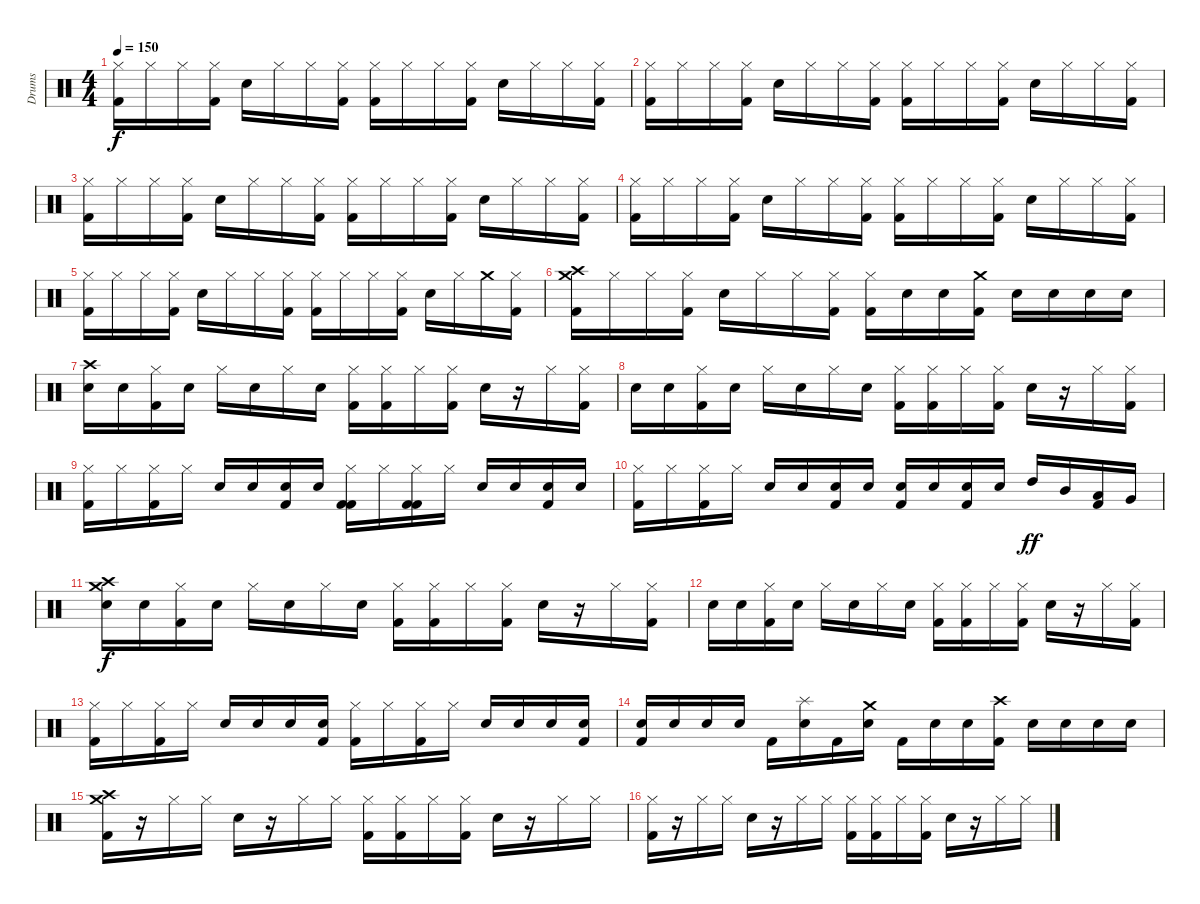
\track ("Drums" "Drums") {instrument percussion}
\staff {score}
\articulation defaults
\ts (4 4)
\tempo 150
\clef neutral
\ks c
("Hi-Hat (closed)" "Kick (hit) 2").16{dy f} "Hi-Hat (closed)".16 "Hi-Hat (closed)".16 ("Hi-Hat (closed)" "Kick (hit) 2").16 "Snare (hit) 2".16 "Hi-Hat (closed)".16 "Hi-Hat (closed)".16 ("Hi-Hat (closed)" "Kick (hit) 2").16 ("Hi-Hat (closed)" "Kick (hit) 2").16 "Hi-Hat (closed)".16 "Hi-Hat (closed)".16 ("Hi-Hat (closed)" "Kick (hit) 2").16 "Snare (hit) 2".16 "Hi-Hat (closed)".16 "Hi-Hat (closed)".16 ("Hi-Hat (closed)" "Kick (hit) 2").16 |
("Hi-Hat (closed)" "Kick (hit) 2").16 "Hi-Hat (closed)".16 "Hi-Hat (closed)".16 ("Hi-Hat (closed)" "Kick (hit) 2").16 "Snare (hit) 2".16 "Hi-Hat (closed)".16 "Hi-Hat (closed)".16 ("Hi-Hat (closed)" "Kick (hit) 2").16 ("Hi-Hat (closed)" "Kick (hit) 2").16 "Hi-Hat (closed)".16 "Hi-Hat (closed)".16 ("Hi-Hat (closed)" "Kick (hit) 2").16 "Snare (hit) 2".16 "Hi-Hat (closed)".16 "Hi-Hat (closed)".16 ("Hi-Hat (closed)" "Kick (hit) 2").16 |
("Hi-Hat (closed)" "Kick (hit) 2").16 "Hi-Hat (closed)".16 "Hi-Hat (closed)".16 ("Hi-Hat (closed)" "Kick (hit) 2").16 "Snare (hit) 2".16 "Hi-Hat (closed)".16 "Hi-Hat (closed)".16 ("Hi-Hat (closed)" "Kick (hit) 2").16 ("Hi-Hat (closed)" "Kick (hit) 2").16 "Hi-Hat (closed)".16 "Hi-Hat (closed)".16 ("Hi-Hat (closed)" "Kick (hit) 2").16 "Snare (hit) 2".16 "Hi-Hat (closed)".16 "Hi-Hat (closed)".16 ("Hi-Hat (closed)" "Kick (hit) 2").16 |
("Hi-Hat (closed)" "Kick (hit) 2").16 "Hi-Hat (closed)".16 "Hi-Hat (closed)".16 ("Hi-Hat (closed)" "Kick (hit) 2").16 "Snare (hit) 2".16 "Hi-Hat (closed)".16 "Hi-Hat (closed)".16 ("Hi-Hat (closed)" "Kick (hit) 2").16 ("Hi-Hat (closed)" "Kick (hit) 2").16 "Hi-Hat (closed)".16 "Hi-Hat (closed)".16 ("Hi-Hat (closed)" "Kick (hit) 2").16 "Snare (hit) 2".16 "Hi-Hat (closed)".16 "Hi-Hat (closed)".16 ("Hi-Hat (closed)" "Kick (hit) 2").16 |
("Hi-Hat (closed)" "Kick (hit) 2").16 "Hi-Hat (closed)".16 "Hi-Hat (closed)".16 ("Hi-Hat (closed)" "Kick (hit) 2").16 "Snare (hit) 2".16 "Hi-Hat (closed)".16 "Hi-Hat (closed)".16 ("Hi-Hat (closed)" "Kick (hit) 2").16 ("Hi-Hat (closed)" "Kick (hit) 2").16 "Hi-Hat (closed)".16 "Hi-Hat (closed)".16 ("Hi-Hat (closed)" "Kick (hit) 2").16 "Snare (hit) 2".16 "Hi-Hat (closed)".16 "Crash medium (hit)".16 ("Hi-Hat (closed)" "Kick (hit) 2").16 |
("Crash medium (hit)" "Crash high (hit)" "Kick (hit) 2").16 "Hi-Hat (closed)".16 "Hi-Hat (closed)".16 ("Hi-Hat (closed)" "Kick (hit) 2").16 "Snare (hit) 2".16 "Hi-Hat (closed)".16 "Hi-Hat (closed)".16 ("Hi-Hat (closed)" "Kick (hit) 2").16 ("Hi-Hat (closed)" "Kick (hit) 2").16 "Snare (hit) 2".16 "Snare (hit) 2".16 ("Crash medium (hit)" "Kick (hit) 2").16 "Snare (hit) 2".16 "Snare (hit) 2".16 "Snare (hit) 2".16 "Snare (hit) 2".16 |
("Crash high (hit)" "Snare (hit) 2").16 "Snare (hit) 2".16 ("Hi-Hat (closed)" "Kick (hit) 2").16 "Snare (hit) 2".16 "Hi-Hat (closed)".16 "Snare (hit) 2".16 "Hi-Hat (closed)".16 "Snare (hit) 2".16 ("Hi-Hat (closed)" "Kick (hit) 2").16 ("Hi-Hat (closed)" "Kick (hit) 2").16 "Hi-Hat (closed)".16 ("Hi-Hat (closed)" "Kick (hit) 2").16 "Snare (hit) 2".16 r.16 "Hi-Hat (closed)".16 ("Hi-Hat (closed)" "Kick (hit) 2").16 |
"Snare (hit) 2".16 "Snare (hit) 2".16 ("Hi-Hat (closed)" "Kick (hit) 2").16 "Snare (hit) 2".16 "Hi-Hat (closed)".16 "Snare (hit) 2".16 "Hi-Hat (closed)".16 "Snare (hit) 2".16 ("Hi-Hat (closed)" "Kick (hit) 2").16 ("Hi-Hat (closed)" "Kick (hit) 2").16 "Hi-Hat (closed)".16 ("Hi-Hat (closed)" "Kick (hit) 2").16 "Snare (hit) 2".16 r.16 "Hi-Hat (closed)".16 ("Hi-Hat (closed)" "Kick (hit) 2").16 |
("Hi-Hat (closed)" "Kick (hit) 2").16 "Hi-Hat (closed)".16 ("Hi-Hat (closed)" "Kick (hit) 2").16 "Hi-Hat (closed)".16 "Snare (hit) 2".16 "Snare (hit) 2".16 ("Snare (hit) 2" "Kick (hit) 2").16 "Snare (hit) 2".16 ("Kick (hit) 2" "Hi-Hat (closed)" "Kick (hit) 2").16 "Hi-Hat (closed)".16 ("Kick (hit) 2" "Hi-Hat (closed)" "Kick (hit) 2").16 "Hi-Hat (closed)".16 "Snare (hit) 2".16 "Snare (hit) 2".16 ("Snare (hit) 2" "Kick (hit) 2").16 "Snare (hit) 2".16 |
("Hi-Hat (closed)" "Kick (hit) 2").16 "Hi-Hat (closed)".16 ("Hi-Hat (closed)" "Kick (hit) 2").16 "Hi-Hat (closed)".16 "Snare (hit) 2".16 "Snare (hit) 2".16 ("Snare (hit) 2" "Kick (hit) 2").16 "Snare (hit) 2".16 ("Snare (hit) 2" "Kick (hit) 2").16 "Snare (hit) 2".16 ("Snare (hit) 2" "Kick (hit) 2").16 "Snare (hit) 2".16 "High Tom (hit)".16{dy ff} "Mid Tom (hit)".16 ("Low Tom (hit)" "Kick (hit) 2").16 "Very Low Tom (hit)".16 |
("Crash medium (hit)" "Crash high (hit)" "Snare (hit) 2").16{dy f} "Snare (hit) 2".16 ("Hi-Hat (closed)" "Kick (hit) 2").16 "Snare (hit) 2".16 "Hi-Hat (closed)".16 "Snare (hit) 2".16 "Hi-Hat (closed)".16 "Snare (hit) 2".16 ("Hi-Hat (closed)" "Kick (hit) 2").16 ("Hi-Hat (closed)" "Kick (hit) 2").16 "Hi-Hat (closed)".16 ("Hi-Hat (closed)" "Kick (hit) 2").16 "Snare (hit) 2".16 r.16 "Hi-Hat (closed)".16 ("Hi-Hat (closed)" "Kick (hit) 2").16 |
"Snare (hit) 2".16 "Snare (hit) 2".16 ("Hi-Hat (closed)" "Kick (hit) 2").16 "Snare (hit) 2".16 "Hi-Hat (closed)".16 "Snare (hit) 2".16 "Hi-Hat (closed)".16 "Snare (hit) 2".16 ("Hi-Hat (closed)" "Kick (hit) 2").16 ("Hi-Hat (closed)" "Kick (hit) 2").16 "Hi-Hat (closed)".16 ("Hi-Hat (closed)" "Kick (hit) 2").16 "Snare (hit) 2".16 r.16 "Hi-Hat (closed)".16 ("Hi-Hat (closed)" "Kick (hit) 2").16 |
("Hi-Hat (closed)" "Kick (hit) 2").16 "Hi-Hat (closed)".16 ("Hi-Hat (closed)" "Kick (hit) 2").16 "Hi-Hat (closed)".16 "Snare (hit) 2".16 "Snare (hit) 2".16 "Snare (hit) 2".16 ("Snare (hit) 2" "Kick (hit) 2").16 ("Hi-Hat (closed)" "Kick (hit) 2").16 "Hi-Hat (closed)".16 ("Hi-Hat (closed)" "Kick (hit) 2").16 "Hi-Hat (closed)".16 "Snare (hit) 2".16 "Snare (hit) 2".16 "Snare (hit) 2".16 ("Snare (hit) 2" "Kick (hit) 2").16 |
("Snare (hit) 2" "Kick (hit) 2").16 "Snare (hit) 2".16 "Snare (hit) 2".16 "Snare (hit) 2".16 "Kick (hit) 2".16 ("Splash (hit)" "Snare (hit) 2").16 "Kick (hit) 2".16 ("Crash medium (hit)" "Snare (hit) 2").16 "Kick (hit) 2".16 "Snare (hit) 2".16 "Snare (hit) 2".16 ("Crash high (hit)" "Kick (hit) 2").16 "Snare (hit) 2".16 "Snare (hit) 2".16 "Snare (hit) 2".16 "Snare (hit) 2".16 |
("Crash medium (hit)" "Crash high (hit)" "Kick (hit) 2").16 r.16 "Hi-Hat (closed)".16 "Hi-Hat (closed)".16 "Snare (hit) 2".16 r.16 "Hi-Hat (closed)".16 "Hi-Hat (closed)".16 ("Hi-Hat (closed)" "Kick (hit) 2").16 ("Hi-Hat (closed)" "Kick (hit) 2").16 "Hi-Hat (closed)".16 ("Hi-Hat (closed)" "Kick (hit) 2").16 "Snare (hit) 2".16 r.16 "Hi-Hat (closed)".16 "Hi-Hat (closed)".16 |
("Hi-Hat (closed)" "Kick (hit) 2").16 r.16 "Hi-Hat (closed)".16 "Hi-Hat (closed)".16 "Snare (hit) 2".16 r.16 "Hi-Hat (closed)".16 "Hi-Hat (closed)".16 ("Hi-Hat (closed)" "Kick (hit) 2").16 ("Hi-Hat (closed)" "Kick (hit) 2").16 "Hi-Hat (closed)".16 ("Hi-Hat (closed)" "Kick (hit) 2").16 "Snare (hit) 2".16 r.16 "Hi-Hat (closed)".16 "Hi-Hat (closed)".16
